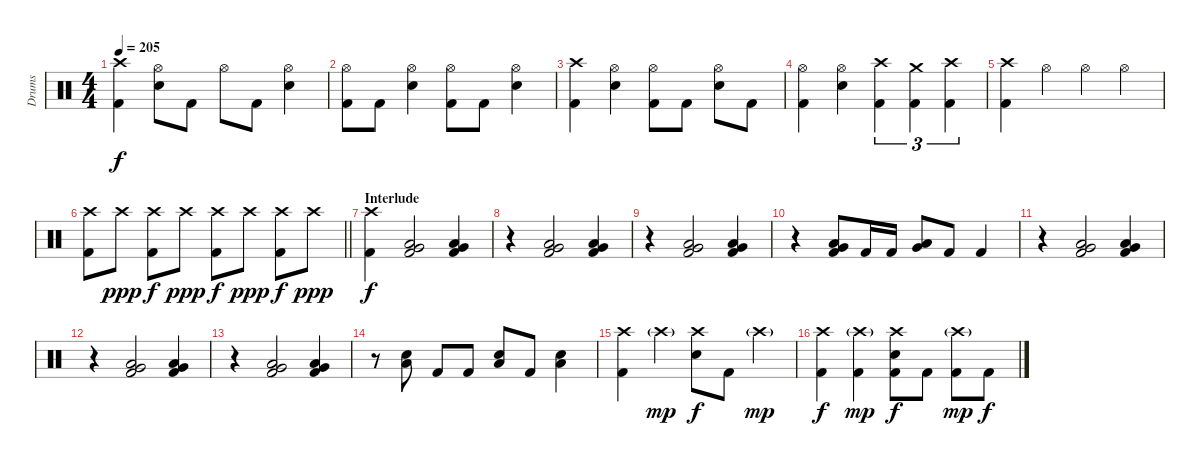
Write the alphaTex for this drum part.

\track ("Drums" "Drums") {instrument percussion}
\staff {score}
\articulation defaults
\ts (4 4)
\tempo 205
\clef neutral
\ks c
("Crash high (hit)" "Kick (hit) 2").4{dy f} ("Hi-Hat (open)" "Electric Snare (hit)").8 "Kick (hit) 2".8 "Hi-Hat (open)".8 "Kick (hit) 2".8 ("Hi-Hat (open)" "Electric Snare (hit)").4 |
("Hi-Hat (open)" "Kick (hit) 2").8 "Kick (hit) 2".8 ("Hi-Hat (open)" "Electric Snare (hit)").4 ("Hi-Hat (open)" "Kick (hit) 2").8 "Kick (hit) 2".8 ("Hi-Hat (open)" "Electric Snare (hit)").4 |
("Crash high (hit)" "Kick (hit) 2").4 ("Hi-Hat (open)" "Electric Snare (hit)").4 ("Hi-Hat (open)" "Kick (hit) 2").8 "Kick (hit) 2".8 ("Hi-Hat (open)" "Electric Snare (hit)").8 "Kick (hit) 2".8 |
("Hi-Hat (open)" "Kick (hit) 2").4 ("Hi-Hat (open)" "Electric Snare (hit)").4 ("Crash high (hit)" "Kick (hit) 2").4{tu (3 2)} ("Crash medium (hit)" "Kick (hit) 2").4{tu (3 2)} ("Crash high (hit)" "Kick (hit) 2").4{tu (3 2)} |
("Crash high (hit)" "Kick (hit) 2").4 "Hi-Hat (open)".4 "Hi-Hat (open)".4 "Hi-Hat (open)".4 |
\barLineRight lightlight
("Crash high (hit)" "Kick (hit) 2").8 "Crash high (hit)".8{dy ppp} ("Crash high (hit)" "Kick (hit) 2").8{dy f} "Crash high (hit)".8{dy ppp} ("Crash high (hit)" "Kick (hit) 2").8{dy f} "Crash high (hit)".8{dy ppp} ("Crash high (hit)" "Kick (hit) 2").8{dy f} "Crash high (hit)".8{dy ppp} |
\section ("" "Interlude")
("Crash high (hit)" "Kick (hit) 2").4{dy f} ("Low Tom (hit)" "Very Low Tom (hit)" "Kick (hit) 2").2 ("Low Tom (hit)" "Very Low Tom (hit)" "Kick (hit) 2").4 |
r.4 ("Low Tom (hit)" "Very Low Tom (hit)" "Kick (hit) 2").2 ("Low Tom (hit)" "Very Low Tom (hit)" "Kick (hit) 2").4 |
r.4 ("Low Tom (hit)" "Very Low Tom (hit)" "Kick (hit) 2").2 ("Low Tom (hit)" "Very Low Tom (hit)" "Kick (hit) 2").4 |
r.4 ("Low Tom (hit)" "Very Low Tom (hit)" "Kick (hit) 2").8 "Kick (hit) 2".16 "Kick (hit) 2".16 ("Low Tom (hit)" "Very Low Tom (hit)").8 "Kick (hit) 2".8 "Kick (hit) 2".4 |
r.4 ("Low Tom (hit)" "Very Low Tom (hit)" "Kick (hit) 2").2 ("Low Tom (hit)" "Very Low Tom (hit)" "Kick (hit) 2").4 |
r.4 ("Low Tom (hit)" "Very Low Tom (hit)" "Kick (hit) 2").2 ("Low Tom (hit)" "Very Low Tom (hit)" "Kick (hit) 2").4 |
r.4 ("Low Tom (hit)" "Very Low Tom (hit)" "Kick (hit) 2").2 ("Low Tom (hit)" "Very Low Tom (hit)" "Kick (hit) 2").4 |
r.8 ("Electric Snare (hit)" "Low Tom (hit)").8 "Kick (hit) 2".8 "Kick (hit) 2".8 ("Electric Snare (hit)" "Low Tom (hit)").8 "Kick (hit) 2".8 ("Electric Snare (hit)" "Low Tom (hit)").4 |
("Crash high (hit)" "Kick (hit) 2").4 "Crash high (hit)"{g}.4{dy mp} ("Crash high (hit)" "Electric Snare (hit)").8{dy f} "Kick (hit) 2".8 "Crash high (hit)"{g}.4{dy mp} |
("Crash high (hit)" "Kick (hit) 2").4{dy f} ("Crash high (hit)"{g} "Kick (hit) 2").4{dy mp} ("Crash high (hit)" "Electric Snare (hit)" "Kick (hit) 2").8{dy f} "Kick (hit) 2".8 ("Crash high (hit)"{g} "Kick (hit) 2").8{dy mp} "Kick (hit) 2".8{dy f}
